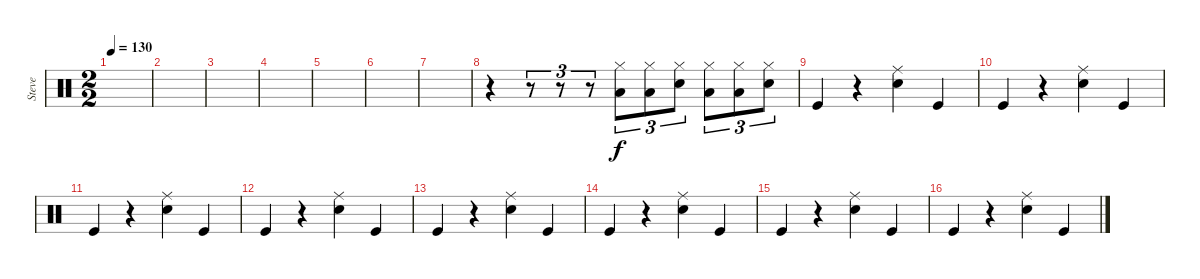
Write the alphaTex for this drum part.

\track ("Steve" "Steve") {instrument percussion}
\staff {score}
\articulation defaults
\ts (2 2)
\tempo 130
\clef neutral
\ks c
|
|
|
|
|
|
|
r.4 r.8{tu (3 2)} r.8{tu (3 2)} r.8{tu (3 2)} ("Low Tom (hit)" "Hi-Hat (closed)").8{tu (3 2)} ("Low Tom (hit)" "Hi-Hat (closed)").8{tu (3 2)} ("Electric Snare (hit)" "Hi-Hat (closed)").8{tu (3 2)} ("Low Tom (hit)" "Hi-Hat (closed)").8{tu (3 2)} ("Low Tom (hit)" "Hi-Hat (closed)").8{tu (3 2)} ("Electric Snare (hit)" "Hi-Hat (closed)").8{tu (3 2)} |
"Kick (hit)".4 r.4 ("Snare (hit) 2" "Ride (middle)").4 "Kick (hit)".4 |
"Kick (hit)".4 r.4 ("Snare (hit) 2" "Ride (middle)").4 "Kick (hit)".4 |
"Kick (hit)".4 r.4 ("Snare (hit) 2" "Ride (middle)").4 "Kick (hit)".4 |
"Kick (hit)".4 r.4 ("Snare (hit) 2" "Ride (middle)").4 "Kick (hit)".4 |
"Kick (hit)".4 r.4 ("Snare (hit) 2" "Ride (middle)").4 "Kick (hit)".4 |
"Kick (hit)".4 r.4 ("Snare (hit) 2" "Ride (middle)").4 "Kick (hit)".4 |
"Kick (hit)".4 r.4 ("Snare (hit) 2" "Ride (middle)").4 "Kick (hit)".4 |
"Kick (hit)".4 r.4 ("Snare (hit) 2" "Ride (middle)").4 "Kick (hit)".4
